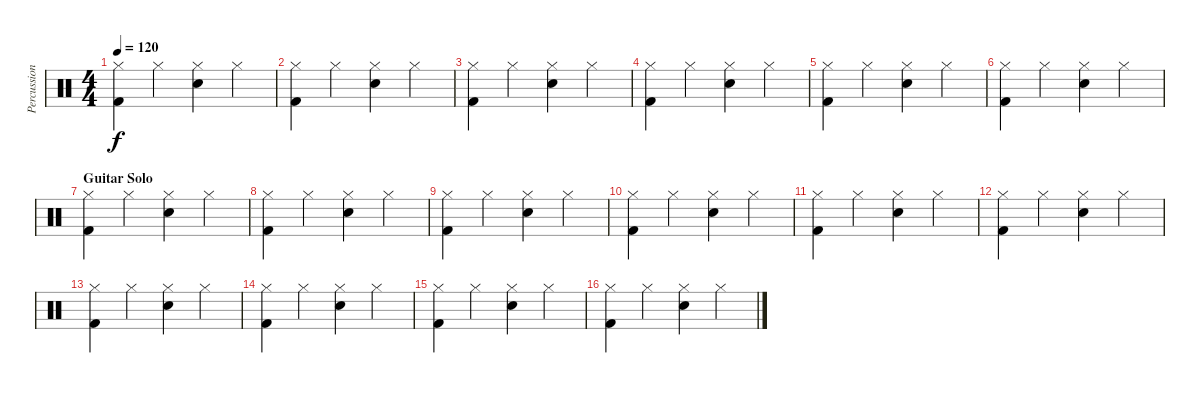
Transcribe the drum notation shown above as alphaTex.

\track ("Percussion" "Percussion") {instrument percussion}
\staff {score}
\articulation defaults
\ts (4 4)
\tempo 120
\clef neutral
\ks c
("Kick (hit) 2" "Hi-Hat (closed)").4{dy f} "Hi-Hat (closed)".4 ("Snare (hit) 2" "Hi-Hat (closed)").4 "Hi-Hat (closed)".4 |
("Kick (hit) 2" "Hi-Hat (closed)").4 "Hi-Hat (closed)".4 ("Snare (hit) 2" "Hi-Hat (closed)").4 "Hi-Hat (closed)".4 |
("Kick (hit) 2" "Hi-Hat (closed)").4 "Hi-Hat (closed)".4 ("Snare (hit) 2" "Hi-Hat (closed)").4 "Hi-Hat (closed)".4 |
("Kick (hit) 2" "Hi-Hat (closed)").4 "Hi-Hat (closed)".4 ("Snare (hit) 2" "Hi-Hat (closed)").4 "Hi-Hat (closed)".4 |
("Kick (hit) 2" "Hi-Hat (closed)").4 "Hi-Hat (closed)".4 ("Snare (hit) 2" "Hi-Hat (closed)").4 "Hi-Hat (closed)".4 |
("Kick (hit) 2" "Hi-Hat (closed)").4 "Hi-Hat (closed)".4 ("Snare (hit) 2" "Hi-Hat (closed)").4 "Hi-Hat (closed)".4 |
\section ("" "Guitar Solo")
("Kick (hit) 2" "Hi-Hat (closed)").4 "Hi-Hat (closed)".4 ("Snare (hit) 2" "Hi-Hat (closed)").4 "Hi-Hat (closed)".4 |
("Kick (hit) 2" "Hi-Hat (closed)").4 "Hi-Hat (closed)".4 ("Snare (hit) 2" "Hi-Hat (closed)").4 "Hi-Hat (closed)".4 |
("Kick (hit) 2" "Hi-Hat (closed)").4 "Hi-Hat (closed)".4 ("Snare (hit) 2" "Hi-Hat (closed)").4 "Hi-Hat (closed)".4 |
("Kick (hit) 2" "Hi-Hat (closed)").4 "Hi-Hat (closed)".4 ("Snare (hit) 2" "Hi-Hat (closed)").4 "Hi-Hat (closed)".4 |
("Kick (hit) 2" "Hi-Hat (closed)").4 "Hi-Hat (closed)".4 ("Snare (hit) 2" "Hi-Hat (closed)").4 "Hi-Hat (closed)".4 |
("Kick (hit) 2" "Hi-Hat (closed)").4 "Hi-Hat (closed)".4 ("Snare (hit) 2" "Hi-Hat (closed)").4 "Hi-Hat (closed)".4 |
("Kick (hit) 2" "Hi-Hat (closed)").4 "Hi-Hat (closed)".4 ("Snare (hit) 2" "Hi-Hat (closed)").4 "Hi-Hat (closed)".4 |
("Kick (hit) 2" "Hi-Hat (closed)").4 "Hi-Hat (closed)".4 ("Snare (hit) 2" "Hi-Hat (closed)").4 "Hi-Hat (closed)".4 |
("Kick (hit) 2" "Hi-Hat (closed)").4 "Hi-Hat (closed)".4 ("Snare (hit) 2" "Hi-Hat (closed)").4 "Hi-Hat (closed)".4 |
("Kick (hit) 2" "Hi-Hat (closed)").4 "Hi-Hat (closed)".4 ("Snare (hit) 2" "Hi-Hat (closed)").4 "Hi-Hat (closed)".4
